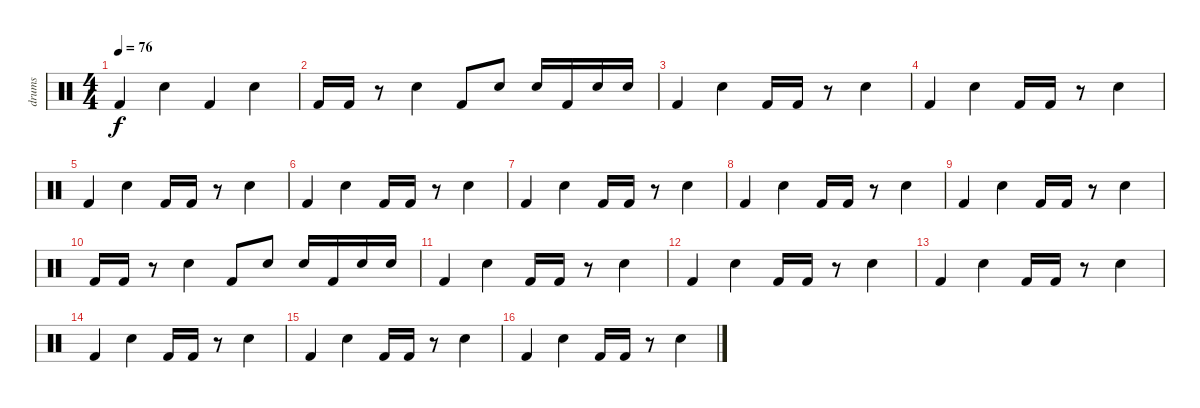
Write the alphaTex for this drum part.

\track ("drums" "drums") {instrument percussion}
\staff {score}
\articulation defaults
\ts (4 4)
\tempo 76
\clef neutral
\ks c "Kick (hit) 2".4{dy f} "Snare (hit) 2".4 "Kick (hit) 2".4 "Snare (hit) 2".4
|
"Kick (hit) 2".16 "Kick (hit) 2".16 r.8 "Snare (hit) 2".4 "Kick (hit) 2".8 "Snare (hit) 2".8 "Snare (hit) 2".16 "Kick (hit) 2".16 "Snare (hit) 2".16 "Snare (hit) 2".16 |
"Kick (hit) 2".4 "Snare (hit) 2".4 "Kick (hit) 2".16 "Kick (hit) 2".16 r.8 "Snare (hit) 2".4 |
"Kick (hit) 2".4 "Snare (hit) 2".4 "Kick (hit) 2".16 "Kick (hit) 2".16 r.8 "Snare (hit) 2".4 |
"Kick (hit) 2".4 "Snare (hit) 2".4 "Kick (hit) 2".16 "Kick (hit) 2".16 r.8 "Snare (hit) 2".4 |
"Kick (hit) 2".4 "Snare (hit) 2".4 "Kick (hit) 2".16 "Kick (hit) 2".16 r.8 "Snare (hit) 2".4 |
"Kick (hit) 2".4 "Snare (hit) 2".4 "Kick (hit) 2".16 "Kick (hit) 2".16 r.8 "Snare (hit) 2".4 |
"Kick (hit) 2".4 "Snare (hit) 2".4 "Kick (hit) 2".16 "Kick (hit) 2".16 r.8 "Snare (hit) 2".4 |
"Kick (hit) 2".4 "Snare (hit) 2".4 "Kick (hit) 2".16 "Kick (hit) 2".16 r.8 "Snare (hit) 2".4 |
"Kick (hit) 2".16 "Kick (hit) 2".16 r.8 "Snare (hit) 2".4 "Kick (hit) 2".8 "Snare (hit) 2".8 "Snare (hit) 2".16 "Kick (hit) 2".16 "Snare (hit) 2".16 "Snare (hit) 2".16 |
"Kick (hit) 2".4 "Snare (hit) 2".4 "Kick (hit) 2".16 "Kick (hit) 2".16 r.8 "Snare (hit) 2".4 |
"Kick (hit) 2".4 "Snare (hit) 2".4 "Kick (hit) 2".16 "Kick (hit) 2".16 r.8 "Snare (hit) 2".4 |
"Kick (hit) 2".4 "Snare (hit) 2".4 "Kick (hit) 2".16 "Kick (hit) 2".16 r.8 "Snare (hit) 2".4 |
"Kick (hit) 2".4 "Snare (hit) 2".4 "Kick (hit) 2".16 "Kick (hit) 2".16 r.8 "Snare (hit) 2".4 |
"Kick (hit) 2".4 "Snare (hit) 2".4 "Kick (hit) 2".16 "Kick (hit) 2".16 r.8 "Snare (hit) 2".4 |
"Kick (hit) 2".4 "Snare (hit) 2".4 "Kick (hit) 2".16 "Kick (hit) 2".16 r.8 "Snare (hit) 2".4
